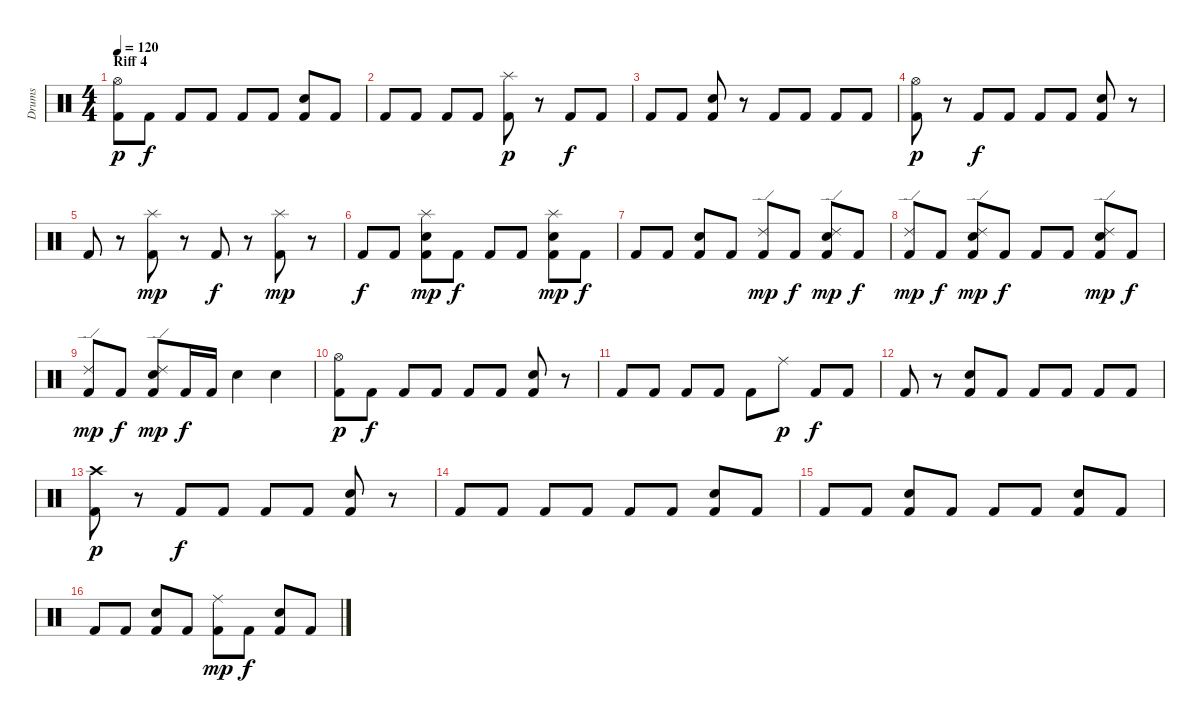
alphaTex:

\track ("Drums" "Drums") {instrument percussion}
\staff {score}
\articulation defaults
\ts (4 4)
\section ("" "Riff 4")
\tempo 120
\clef neutral
\ks c
("Kick (hit) 2" "Hi-Hat (open)").8{dy p} "Kick (hit) 2".8{dy f} "Kick (hit) 2".8 "Kick (hit) 2".8 "Kick (hit) 2".8 "Kick (hit) 2".8 ("Kick (hit) 2" "Snare (hit) 2").8 "Kick (hit) 2".8 |
"Kick (hit) 2".8 "Kick (hit) 2".8 "Kick (hit) 2".8 "Kick (hit) 2".8 ("Kick (hit) 2" "Splash (hit)").8{dy p} r.8 "Kick (hit) 2".8{dy f} "Kick (hit) 2".8 |
"Kick (hit) 2".8 "Kick (hit) 2".8 ("Kick (hit) 2" "Snare (hit) 2").8 r.8 "Kick (hit) 2".8 "Kick (hit) 2".8 "Kick (hit) 2".8 "Kick (hit) 2".8 |
("Kick (hit) 2" "Hi-Hat (open)").8{dy p} r.8 "Kick (hit) 2".8{dy f} "Kick (hit) 2".8 "Kick (hit) 2".8 "Kick (hit) 2".8 ("Kick (hit) 2" "Snare (hit) 2").8 r.8 |
"Kick (hit) 2".8 r.8 ("Kick (hit) 2" "Splash (hit)").8{dy mp} r.8 "Kick (hit) 2".8{dy f} r.8 ("Kick (hit) 2" "Splash (hit)").8{dy mp} r.8 |
"Kick (hit) 2".8{dy f} "Kick (hit) 2".8 ("Kick (hit) 2" "Splash (hit)" "Snare (hit) 2").8{dy mp} "Kick (hit) 2".8{dy f} "Kick (hit) 2".8 "Kick (hit) 2".8 ("Kick (hit) 2" "Splash (hit)" "Snare (hit) 2").8{dy mp} "Kick (hit) 2".8{dy f} |
"Kick (hit) 2".8 "Kick (hit) 2".8 ("Kick (hit) 2" "Snare (hit) 2").8 "Kick (hit) 2".8 ("Kick (hit) 2" "Ride (edge) 2").8{dy mp} "Kick (hit) 2".8{dy f} ("Kick (hit) 2" "Ride (edge) 2" "Snare (hit) 2").8{dy mp} "Kick (hit) 2".8{dy f} |
("Kick (hit) 2" "Ride (edge) 2").8{dy mp} "Kick (hit) 2".8{dy f} ("Kick (hit) 2" "Ride (edge) 2" "Snare (hit) 2").8{dy mp} "Kick (hit) 2".8{dy f} "Kick (hit) 2".8 "Kick (hit) 2".8 ("Kick (hit) 2" "Ride (edge) 2" "Snare (hit) 2").8{dy mp} "Kick (hit) 2".8{dy f} |
("Kick (hit) 2" "Ride (edge) 2").8{dy mp} "Kick (hit) 2".8{dy f} ("Kick (hit) 2" "Ride (edge) 2" "Snare (hit) 2").8{dy mp} "Kick (hit) 2".16{dy f} "Kick (hit) 2".16 "Snare (hit) 2".4 "Snare (hit) 2".4 |
("Kick (hit) 2" "Hi-Hat (open)").8{dy p} "Kick (hit) 2".8{dy f} "Kick (hit) 2".8 "Kick (hit) 2".8 "Kick (hit) 2".8 "Kick (hit) 2".8 ("Kick (hit) 2" "Snare (hit) 2").8 r.8 |
"Kick (hit) 2".8 "Kick (hit) 2".8 "Kick (hit) 2".8 "Kick (hit) 2".8 "Kick (hit) 2".8 "Ride (middle)".8{dy p} "Kick (hit) 2".8{dy f} "Kick (hit) 2".8 |
"Kick (hit) 2".8 r.8 ("Kick (hit) 2" "Snare (hit) 2").8 "Kick (hit) 2".8 "Kick (hit) 2".8 "Kick (hit) 2".8 "Kick (hit) 2".8 "Kick (hit) 2".8 |
("Kick (hit) 2" "Crash high (hit)").8{dy p} r.8 "Kick (hit) 2".8{dy f} "Kick (hit) 2".8 "Kick (hit) 2".8 "Kick (hit) 2".8 ("Kick (hit) 2" "Snare (hit) 2").8 r.8 |
"Kick (hit) 2".8 "Kick (hit) 2".8 "Kick (hit) 2".8 "Kick (hit) 2".8 "Kick (hit) 2".8 "Kick (hit) 2".8 ("Kick (hit) 2" "Snare (hit) 2").8 "Kick (hit) 2".8 |
"Kick (hit) 2".8 "Kick (hit) 2".8 ("Kick (hit) 2" "Snare (hit) 2").8 "Kick (hit) 2".8 "Kick (hit) 2".8 "Kick (hit) 2".8 ("Kick (hit) 2" "Snare (hit) 2").8 "Kick (hit) 2".8 |
"Kick (hit) 2".8 "Kick (hit) 2".8 ("Kick (hit) 2" "Snare (hit) 2").8 "Kick (hit) 2".8 ("Kick (hit) 2" "Ride (middle)").8{dy mp} "Kick (hit) 2".8{dy f} ("Kick (hit) 2" "Snare (hit) 2").8 "Kick (hit) 2".8
